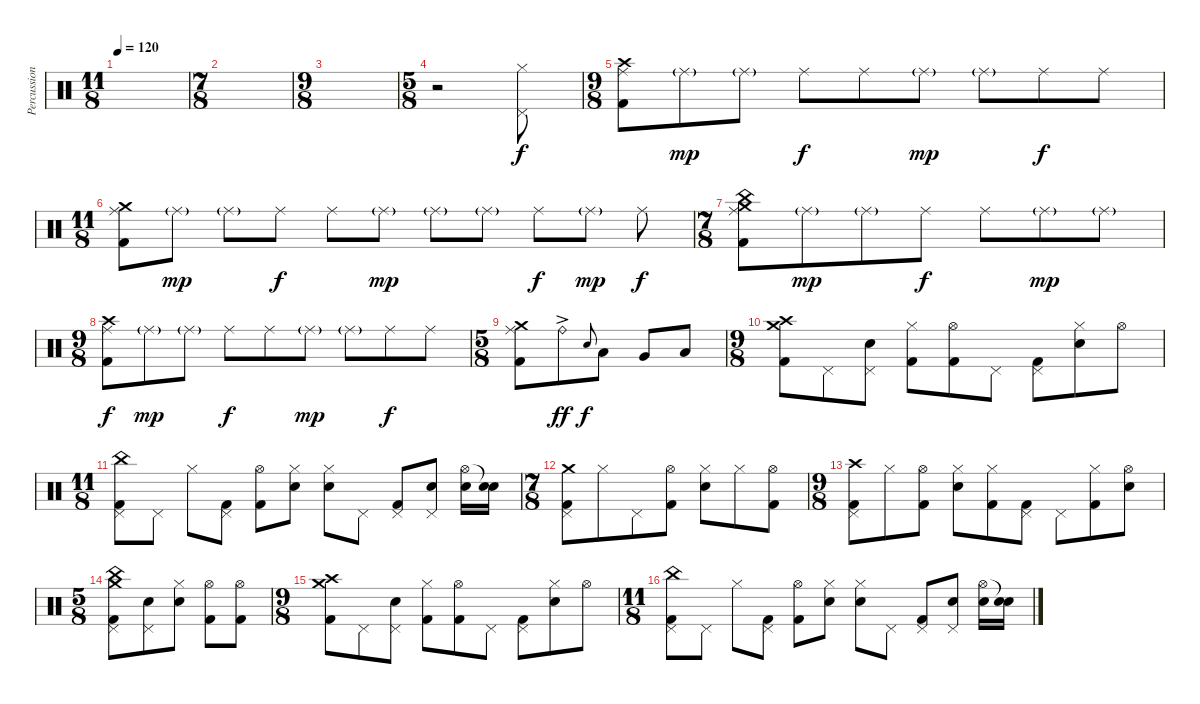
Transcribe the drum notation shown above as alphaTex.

\track ("Percussion" "Percussion") {instrument percussion}
\staff {score}
\articulation defaults
\ts (11 8)
\tempo 120
\clef neutral
\ks c
|
\ts (7 8)
|
\ts (9 8)
|
\ts (5 8)
r.2 ("Pedal Hi-Hat (hit)" "Hi-Hat (closed)").8 |
\ts (9 8)
("Crash high (hit)" "Ride (middle)" "Kick (hit) 2").8 "Ride (middle)"{g}.8{dy mp} "Ride (middle)"{g}.8 "Ride (middle)".8{dy f} "Ride (middle)".8 "Ride (middle)"{g}.8{dy mp} "Ride (middle)"{g}.8 "Ride (middle)".8{dy f} "Ride (middle)".8 |
\ts (11 8)
("Crash medium (hit)" "Ride (middle)" "Kick (hit) 2").8 "Ride (middle)"{g}.8{dy mp} "Ride (middle)"{g}.8 "Ride (middle)".8{dy f} "Ride (middle)".8 "Ride (middle)"{g}.8{dy mp} "Ride (middle)"{g}.8 "Ride (middle)"{g}.8 "Ride (middle)".8{dy f} "Ride (middle)"{g}.8{dy mp} "Ride (middle)".8{dy f} |
\ts (7 8)
("China (hit)" "Ride (middle)" "Crash medium (hit)" "Kick (hit) 2").8 "Ride (middle)"{g}.8{dy mp} "Ride (middle)"{g}.8 "Ride (middle)".8{dy f} "Ride (middle)".8 "Ride (middle)"{g}.8{dy mp} "Ride (middle)"{g}.8 |
\ts (9 8)
("Crash high (hit)" "Ride (middle)" "Kick (hit) 2").8{dy f} "Ride (middle)"{g}.8{dy mp} "Ride (middle)"{g}.8 "Ride (middle)".8{dy f} "Ride (middle)".8 "Ride (middle)"{g}.8{dy mp} "Ride (middle)"{g}.8 "Ride (middle)".8{dy f} "Ride (middle)".8 |
\ts (5 8)
("Crash medium (hit)" "Ride (middle)" "Kick (hit) 2").8 "Ride (bell)"{ac}.8{dy ff} "Snare (hit) 2".8{gr onbeat dy f} "Low Tom (hit)".8 "Very Low Tom (hit)".8 "Low Floor Tom (hit)".8 |
\ts (9 8)
("Crash medium (hit)" "Crash high (hit)" "Kick (hit) 2").8 "Pedal Hi-Hat (hit)".8 ("Pedal Hi-Hat (hit)" "Electric Snare (hit)").8 ("Hi-Hat (closed)" "Kick (hit) 2").8 ("Hi-Hat (open)" "Kick (hit) 2").8 "Pedal Hi-Hat (hit)".8 ("Pedal Hi-Hat (hit)" "Kick (hit) 2").8 ("Hi-Hat (closed)" "Electric Snare (hit)").8 "Hi-Hat (open)".8 |
\ts (11 8)
("China (hit)" "Pedal Hi-Hat (hit)" "Kick (hit) 2").8 "Pedal Hi-Hat (hit)".8 "Hi-Hat (closed)".8 ("Pedal Hi-Hat (hit)" "Kick (hit) 2").8 ("Hi-Hat (open)" "Kick (hit) 2").8 ("Hi-Hat (closed)" "Electric Snare (hit)").8 ("Hi-Hat (closed)" "Electric Snare (hit)").8 "Pedal Hi-Hat (hit)".8 ("Pedal Hi-Hat (hit)" "Kick (hit) 2").8 ("Pedal Hi-Hat (hit)" "Electric Snare (hit)").8 ("Hi-Hat (open)" "Electric Snare (hit)").16 ("Snare (hit)"{t} "Electric Snare (hit)").16 |
\ts (7 8)
("Crash medium (hit)" "Pedal Hi-Hat (hit)" "Kick (hit) 2").8 "Hi-Hat (closed)".8 "Pedal Hi-Hat (hit)".8 ("Hi-Hat (open)" "Kick (hit) 2").8 ("Hi-Hat (closed)" "Electric Snare (hit)").8 "Hi-Hat (closed)".8 ("Hi-Hat (open)" "Kick (hit) 2").8 |
\ts (9 8)
("Crash high (hit)" "Pedal Hi-Hat (hit)" "Kick (hit) 2").8 "Hi-Hat (closed)".8 ("Hi-Hat (open)" "Kick (hit) 2").8 ("Hi-Hat (closed)" "Electric Snare (hit)").8 ("Hi-Hat (closed)" "Kick (hit) 2").8 ("Pedal Hi-Hat (hit)" "Kick (hit) 2").8 "Pedal Hi-Hat (hit)".8 ("Hi-Hat (closed)" "Kick (hit) 2").8 ("Hi-Hat (open)" "Electric Snare (hit)").8 |
\ts (5 8)
("China (hit)" "Pedal Hi-Hat (hit)" "Crash medium (hit)" "Kick (hit) 2").8 ("Pedal Hi-Hat (hit)" "Electric Snare (hit)").8 ("Hi-Hat (closed)" "Electric Snare (hit)").8 ("Hi-Hat (open)" "Kick (hit) 2").8 ("Hi-Hat (open)" "Kick (hit) 2").8 |
\ts (9 8)
("Crash medium (hit)" "Crash high (hit)" "Kick (hit) 2").8 "Pedal Hi-Hat (hit)".8 ("Pedal Hi-Hat (hit)" "Electric Snare (hit)").8 ("Hi-Hat (closed)" "Kick (hit) 2").8 ("Hi-Hat (open)" "Kick (hit) 2").8 "Pedal Hi-Hat (hit)".8 ("Pedal Hi-Hat (hit)" "Kick (hit) 2").8 ("Hi-Hat (closed)" "Electric Snare (hit)").8 "Hi-Hat (open)".8 |
\ts (11 8)
("China (hit)" "Pedal Hi-Hat (hit)" "Kick (hit) 2").8 "Pedal Hi-Hat (hit)".8 "Hi-Hat (closed)".8 ("Pedal Hi-Hat (hit)" "Kick (hit) 2").8 ("Hi-Hat (open)" "Kick (hit) 2").8 ("Hi-Hat (closed)" "Electric Snare (hit)").8 ("Hi-Hat (closed)" "Electric Snare (hit)").8 "Pedal Hi-Hat (hit)".8 ("Pedal Hi-Hat (hit)" "Kick (hit) 2").8 ("Pedal Hi-Hat (hit)" "Electric Snare (hit)").8 ("Hi-Hat (open)" "Electric Snare (hit)").16 ("Snare (hit)"{t} "Electric Snare (hit)").16
